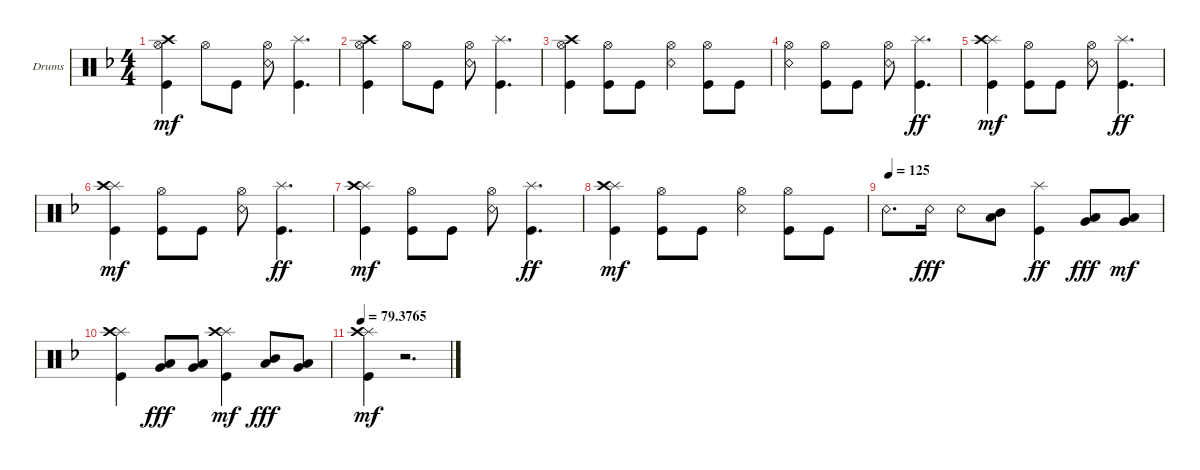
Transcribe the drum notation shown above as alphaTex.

\bracketExtendMode groupsimilarinstruments
\firstSystemTrackNameOrientation horizontal
\otherSystemsTrackNameOrientation horizontal
\track ("Drumkit" "Drums") {instrument percussion}
\staff {score}
\articulation defaults
\ts (4 4)
\tempo (125 hide)
\clef neutral
\scale
0.333333
\ks dminor
("Hi-Hat (open)" "Kick (hit)" "Crash high (hit)").4{dy mf} "Hi-Hat (open)".8 "Kick (hit)".8 ("Hi-Hat (open)" "Snare (rim shot)").8 ("Kick (hit)" "Splash (hit)").4{d} |
\scale
0.333333 ("Hi-Hat (open)" "Kick (hit)" "Crash high (hit)").4 "Hi-Hat (open)".8 "Kick (hit)".8 ("Hi-Hat (open)" "Snare (rim shot)").8 ("Kick (hit)" "Splash (hit)").4{d} |
\scale
0.333333 ("Hi-Hat (open)" "Kick (hit)" "Crash high (hit)").4 ("Hi-Hat (open)" "Kick (hit)").8 "Kick (hit)".8 ("Hi-Hat (open)" "Snare (rim shot)").4 ("Hi-Hat (open)" "Kick (hit)").8 "Kick (hit)".8 |
\scale
0.333333 ("Hi-Hat (open)" "Snare (rim shot)").4 ("Hi-Hat (open)" "Kick (hit)").8 "Kick (hit)".8 ("Hi-Hat (open)" "Snare (rim shot)").8 ("Splash (hit)" "Kick (hit)").4{d dy ff} |
\scale
0.333333 ("Splash (hit)" "Crash high (hit)" "Kick (hit)").4{dy mf} ("Hi-Hat (open)" "Kick (hit)").8 "Kick (hit)".8 ("Hi-Hat (open)" "Snare (rim shot)").8 ("Splash (hit)" "Kick (hit)").4{d dy ff} |
\scale
0.333333 ("Splash (hit)" "Crash high (hit)" "Kick (hit)").4{dy mf} ("Hi-Hat (open)" "Kick (hit)").8 "Kick (hit)".8 ("Hi-Hat (open)" "Snare (rim shot)").8 ("Splash (hit)" "Kick (hit)").4{d dy ff} |
\scale
0.333333 ("Splash (hit)" "Crash high (hit)" "Kick (hit)").4{dy mf} ("Hi-Hat (open)" "Kick (hit)").8 "Kick (hit)".8 ("Hi-Hat (open)" "Snare (rim shot)").8 ("Splash (hit)" "Kick (hit)").4{d dy ff} |
\scale
0.333333 ("Splash (hit)" "Crash high (hit)" "Kick (hit)").4{dy mf} ("Hi-Hat (open)" "Kick (hit)").8 "Kick (hit)".8 ("Hi-Hat (open)" "Snare (rim shot)").4 ("Hi-Hat (open)" "Kick (hit)").8 "Kick (hit)".8 |
\tempo (125 0.0125)
\scale
0.333333 "Snare (rim shot)".8{d} "Snare (rim shot)".16{dy fff} "Snare (rim shot)".8 ("Low Tom (hit)" "Mid Tom (hit)").8 ("Splash (hit)" "Kick (hit)").4{dy ff} ("Low Tom (hit)" "Very Low Tom (hit)").8{dy fff} ("Low Tom (hit)" "Very Low Tom (hit)").8{dy mf} |
\scale
0.333333 ("Splash (hit)" "Crash high (hit)" "Kick (hit)").4 ("Low Tom (hit)" "Very Low Tom (hit)").8{dy fff} ("Very Low Tom (hit)" "Low Tom (hit)").8 ("Splash (hit)" "Crash high (hit)" "Kick (hit)").4{dy mf} ("Mid Tom (hit)" "Low Tom (hit)").8{dy fff} ("Very Low Tom (hit)" "Low Tom (hit)").8 |
\tempo
79.3765
\scale
0.333333 ("Splash (hit)" "Crash high (hit)" "Kick (hit)").4{dy mf} r.2{d}
